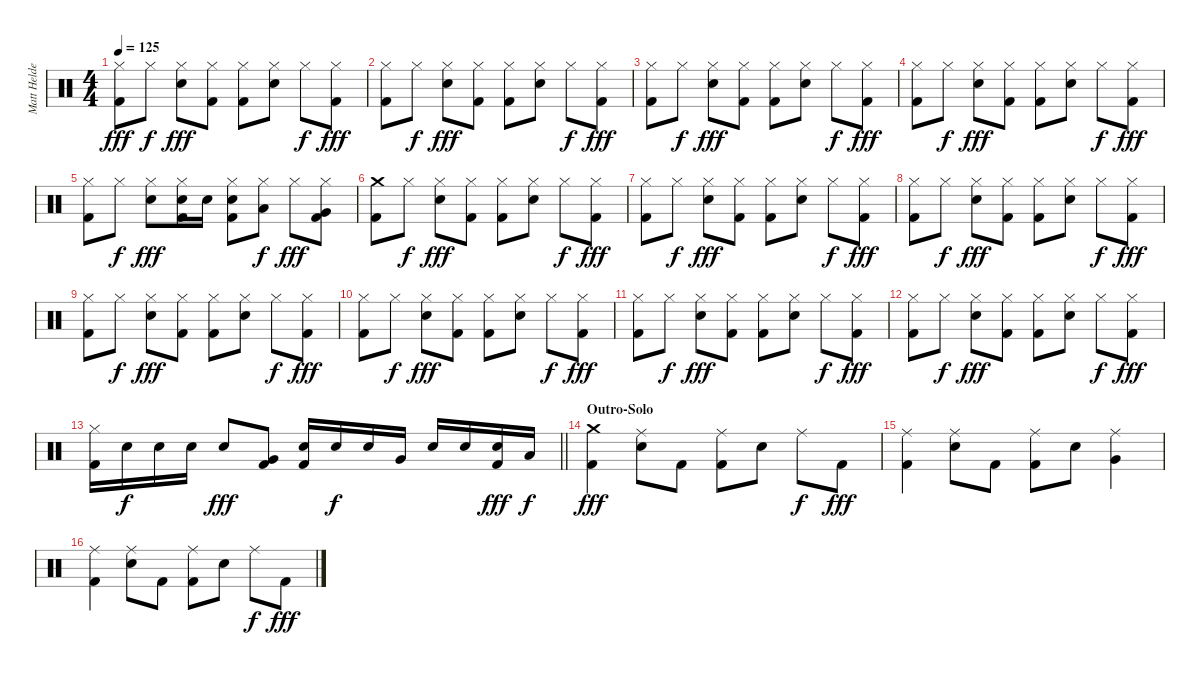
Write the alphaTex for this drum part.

\track ("Matt Helders" "Matt Helde") {instrument percussion}
\staff {score}
\articulation defaults
\ts (4 4)
\tempo 125
\clef neutral
\ks c
("Hi-Hat (closed)" "Kick (hit) 2").8{dy fff} "Hi-Hat (closed)".8{dy f} ("Hi-Hat (closed)" "Electric Snare (hit)").8{dy fff} ("Hi-Hat (closed)" "Kick (hit) 2").8 ("Hi-Hat (closed)" "Kick (hit) 2").8 ("Hi-Hat (closed)" "Electric Snare (hit)").8 "Hi-Hat (closed)".8{dy f} ("Hi-Hat (closed)" "Kick (hit) 2").8{dy fff} |
("Hi-Hat (closed)" "Kick (hit) 2").8 "Hi-Hat (closed)".8{dy f} ("Hi-Hat (closed)" "Electric Snare (hit)").8{dy fff} ("Hi-Hat (closed)" "Kick (hit) 2").8 ("Hi-Hat (closed)" "Kick (hit) 2").8 ("Hi-Hat (closed)" "Electric Snare (hit)").8 "Hi-Hat (closed)".8{dy f} ("Hi-Hat (closed)" "Kick (hit) 2").8{dy fff} |
("Hi-Hat (closed)" "Kick (hit) 2").8 "Hi-Hat (closed)".8{dy f} ("Hi-Hat (closed)" "Electric Snare (hit)").8{dy fff} ("Hi-Hat (closed)" "Kick (hit) 2").8 ("Hi-Hat (closed)" "Kick (hit) 2").8 ("Hi-Hat (closed)" "Electric Snare (hit)").8 "Hi-Hat (closed)".8{dy f} ("Hi-Hat (closed)" "Kick (hit) 2").8{dy fff} |
("Hi-Hat (closed)" "Kick (hit) 2").8 "Hi-Hat (closed)".8{dy f} ("Hi-Hat (closed)" "Electric Snare (hit)").8{dy fff} ("Hi-Hat (closed)" "Kick (hit) 2").8 ("Hi-Hat (closed)" "Kick (hit) 2").8 ("Hi-Hat (closed)" "Electric Snare (hit)").8 "Hi-Hat (closed)".8{dy f} ("Hi-Hat (closed)" "Kick (hit) 2").8{dy fff} |
("Hi-Hat (closed)" "Kick (hit) 2").8 "Hi-Hat (closed)".8{dy f} ("Hi-Hat (closed)" "Electric Snare (hit)").8{dy fff} ("Hi-Hat (closed)" "Electric Snare (hit)" "Kick (hit) 2").16 "Electric Snare (hit)".16 ("Hi-Hat (closed)" "Electric Snare (hit)" "Kick (hit) 2").8 ("Hi-Hat (closed)" "Low Floor Tom (hit)").8{dy f} "Hi-Hat (closed)".8{dy fff} ("Hi-Hat (closed)" "Very Low Tom (hit)" "Kick (hit) 2").8 |
("Crash medium (hit)" "Kick (hit) 2").8 "Hi-Hat (closed)".8{dy f} ("Hi-Hat (closed)" "Electric Snare (hit)").8{dy fff} ("Hi-Hat (closed)" "Kick (hit) 2").8 ("Hi-Hat (closed)" "Kick (hit) 2").8 ("Hi-Hat (closed)" "Electric Snare (hit)").8 "Hi-Hat (closed)".8{dy f} ("Hi-Hat (closed)" "Kick (hit) 2").8{dy fff} |
("Hi-Hat (closed)" "Kick (hit) 2").8 "Hi-Hat (closed)".8{dy f} ("Hi-Hat (closed)" "Electric Snare (hit)").8{dy fff} ("Hi-Hat (closed)" "Kick (hit) 2").8 ("Hi-Hat (closed)" "Kick (hit) 2").8 ("Hi-Hat (closed)" "Electric Snare (hit)").8 "Hi-Hat (closed)".8{dy f} ("Hi-Hat (closed)" "Kick (hit) 2").8{dy fff} |
("Hi-Hat (closed)" "Kick (hit) 2").8 "Hi-Hat (closed)".8{dy f} ("Hi-Hat (closed)" "Electric Snare (hit)").8{dy fff} ("Hi-Hat (closed)" "Kick (hit) 2").8 ("Hi-Hat (closed)" "Kick (hit) 2").8 ("Hi-Hat (closed)" "Electric Snare (hit)").8 "Hi-Hat (closed)".8{dy f} ("Hi-Hat (closed)" "Kick (hit) 2").8{dy fff} |
("Hi-Hat (closed)" "Kick (hit) 2").8 "Hi-Hat (closed)".8{dy f} ("Hi-Hat (closed)" "Electric Snare (hit)").8{dy fff} ("Hi-Hat (closed)" "Kick (hit) 2").8 ("Hi-Hat (closed)" "Kick (hit) 2").8 ("Hi-Hat (closed)" "Electric Snare (hit)").8 "Hi-Hat (closed)".8{dy f} ("Hi-Hat (closed)" "Kick (hit) 2").8{dy fff} |
("Hi-Hat (closed)" "Kick (hit) 2").8 "Hi-Hat (closed)".8{dy f} ("Hi-Hat (closed)" "Electric Snare (hit)").8{dy fff} ("Hi-Hat (closed)" "Kick (hit) 2").8 ("Hi-Hat (closed)" "Kick (hit) 2").8 ("Hi-Hat (closed)" "Electric Snare (hit)").8 "Hi-Hat (closed)".8{dy f} ("Hi-Hat (closed)" "Kick (hit) 2").8{dy fff} |
("Hi-Hat (closed)" "Kick (hit) 2").8 "Hi-Hat (closed)".8{dy f} ("Hi-Hat (closed)" "Electric Snare (hit)").8{dy fff} ("Hi-Hat (closed)" "Kick (hit) 2").8 ("Hi-Hat (closed)" "Kick (hit) 2").8 ("Hi-Hat (closed)" "Electric Snare (hit)").8 "Hi-Hat (closed)".8{dy f} ("Hi-Hat (closed)" "Kick (hit) 2").8{dy fff} |
("Hi-Hat (closed)" "Kick (hit) 2").8 "Hi-Hat (closed)".8{dy f} ("Hi-Hat (closed)" "Electric Snare (hit)").8{dy fff} ("Hi-Hat (closed)" "Kick (hit) 2").8 ("Hi-Hat (closed)" "Kick (hit) 2").8 ("Hi-Hat (closed)" "Electric Snare (hit)").8 "Hi-Hat (closed)".8{dy f} ("Hi-Hat (closed)" "Kick (hit) 2").8{dy fff} |
\barLineRight lightlight
("Hi-Hat (closed)" "Kick (hit) 2").16 "Electric Snare (hit)".16{dy f} "Electric Snare (hit)".16 "Electric Snare (hit)".16 "Electric Snare (hit)".8{dy fff} ("Very Low Tom (hit)" "Kick (hit) 2").8 ("Electric Snare (hit)" "Kick (hit) 2").16 "Electric Snare (hit)".16{dy f} "Electric Snare (hit)".16 "Very Low Tom (hit)".16 "Electric Snare (hit)".16 "Electric Snare (hit)".16 ("Electric Snare (hit)" "Kick (hit) 2").16{dy fff} "Low Floor Tom (hit)".16{dy f} |
\section ("" "Outro-Solo")
("Crash medium (hit)" "Kick (hit) 2").4{dy fff} ("Ride (middle)" "Electric Snare (hit)").8 "Kick (hit) 2".8 ("Ride (middle)" "Kick (hit) 2").8 "Electric Snare (hit)".8 "Ride (middle)".8{dy f} "Kick (hit) 2".8{dy fff} |
("Ride (middle)" "Kick (hit) 2").4 ("Ride (middle)" "Electric Snare (hit)").8 "Kick (hit) 2".8 ("Ride (middle)" "Kick (hit) 2").8 "Electric Snare (hit)".8 ("Ride (middle)" "Very Low Tom (hit)").4 |
("Ride (middle)" "Kick (hit) 2").4 ("Ride (middle)" "Electric Snare (hit)").8 "Kick (hit) 2".8 ("Ride (middle)" "Kick (hit) 2").8 "Electric Snare (hit)".8 "Ride (middle)".8{dy f} "Kick (hit) 2".8{dy fff}
